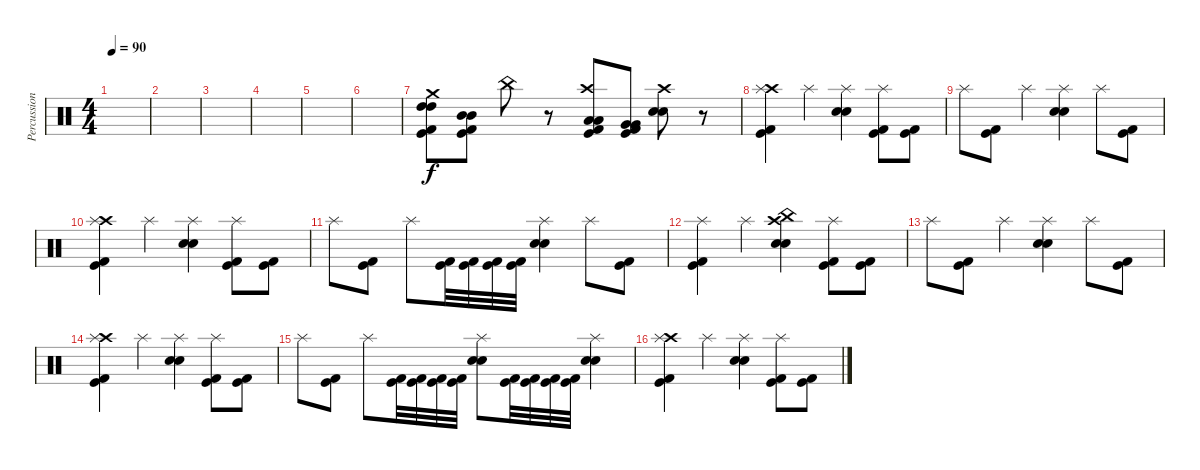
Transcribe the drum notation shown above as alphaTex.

\track ("Percussion" "Percussion") {instrument percussion}
\staff {score}
\articulation defaults
\ts (4 4)
\tempo 90
\clef neutral
\ks c
|
|
|
|
|
|
("Crash medium (hit)" "High Tom (hit)" "High Tom (hit)" "Kick (hit)" "Kick (hit) 2").8 ("Mid Tom (hit)" "Mid Tom (hit)" "Kick (hit)" "Kick (hit) 2").8 "China (hit)".8 r.8 ("Crash high (hit)" "Low Tom (hit)" "Low Tom (hit)" "Kick (hit)" "Kick (hit) 2").8 ("Very Low Tom (hit)" "Very Low Tom (hit)" "Kick (hit)" "Kick (hit) 2").8 ("Crash high (hit)" "Electric Snare (hit)" "Snare (hit) 2").8 r.8 |
("Crash high (hit)" "Splash (hit)" "Kick (hit)" "Kick (hit) 2").4 "Splash (hit)".4 ("Splash (hit)" "Electric Snare (hit)" "Snare (hit) 2").4 ("Splash (hit)" "Kick (hit)" "Kick (hit) 2").8 ("Kick (hit)" "Kick (hit) 2").8 |
"Splash (hit)".8 ("Kick (hit)" "Kick (hit) 2").8 "Splash (hit)".4 ("Splash (hit)" "Electric Snare (hit)" "Snare (hit) 2").4 "Splash (hit)".8 ("Kick (hit)" "Kick (hit) 2").8 |
("Crash high (hit)" "Splash (hit)" "Kick (hit)" "Kick (hit) 2").4 "Splash (hit)".4 ("Splash (hit)" "Electric Snare (hit)" "Snare (hit) 2").4 ("Splash (hit)" "Kick (hit)" "Kick (hit) 2").8 ("Kick (hit)" "Kick (hit) 2").8 |
"Splash (hit)".8 ("Kick (hit)" "Kick (hit) 2").8 "Splash (hit)".8 ("Kick (hit)" "Kick (hit) 2").32 ("Kick (hit)" "Kick (hit) 2").32 ("Kick (hit)" "Kick (hit) 2").32 ("Kick (hit)" "Kick (hit) 2").32 ("Splash (hit)" "Electric Snare (hit)" "Snare (hit) 2").4 "Splash (hit)".8 ("Kick (hit)" "Kick (hit) 2").8 |
("Splash (hit)" "Kick (hit)" "Kick (hit) 2").4 "Splash (hit)".4 ("Crash high (hit)" "China (hit)" "Electric Snare (hit)" "Snare (hit) 2").4 ("Splash (hit)" "Kick (hit)" "Kick (hit) 2").8 ("Kick (hit)" "Kick (hit) 2").8 |
"Splash (hit)".8 ("Kick (hit)" "Kick (hit) 2").8 "Splash (hit)".4 ("Splash (hit)" "Electric Snare (hit)" "Snare (hit) 2").4 "Splash (hit)".8 ("Kick (hit)" "Kick (hit) 2").8 |
("Crash high (hit)" "Splash (hit)" "Kick (hit)" "Kick (hit) 2").4 "Splash (hit)".4 ("Splash (hit)" "Electric Snare (hit)" "Snare (hit) 2").4 ("Splash (hit)" "Kick (hit)" "Kick (hit) 2").8 ("Kick (hit)" "Kick (hit) 2").8 |
"Splash (hit)".8 ("Kick (hit)" "Kick (hit) 2").8 "Splash (hit)".8 ("Kick (hit)" "Kick (hit) 2").32 ("Kick (hit)" "Kick (hit) 2").32 ("Kick (hit)" "Kick (hit) 2").32 ("Kick (hit)" "Kick (hit) 2").32 ("Splash (hit)" "Electric Snare (hit)" "Snare (hit) 2").8 ("Kick (hit)" "Kick (hit) 2").32 ("Kick (hit)" "Kick (hit) 2").32 ("Kick (hit)" "Kick (hit) 2").32 ("Kick (hit)" "Kick (hit) 2").32 ("Splash (hit)" "Electric Snare (hit)" "Snare (hit) 2").4 |
("Crash high (hit)" "Splash (hit)" "Kick (hit)" "Kick (hit) 2").4{volume 8} "Splash (hit)".4 ("Splash (hit)" "Electric Snare (hit)" "Snare (hit) 2").4 ("Splash (hit)" "Kick (hit)" "Kick (hit) 2").8 ("Kick (hit)" "Kick (hit) 2").8
